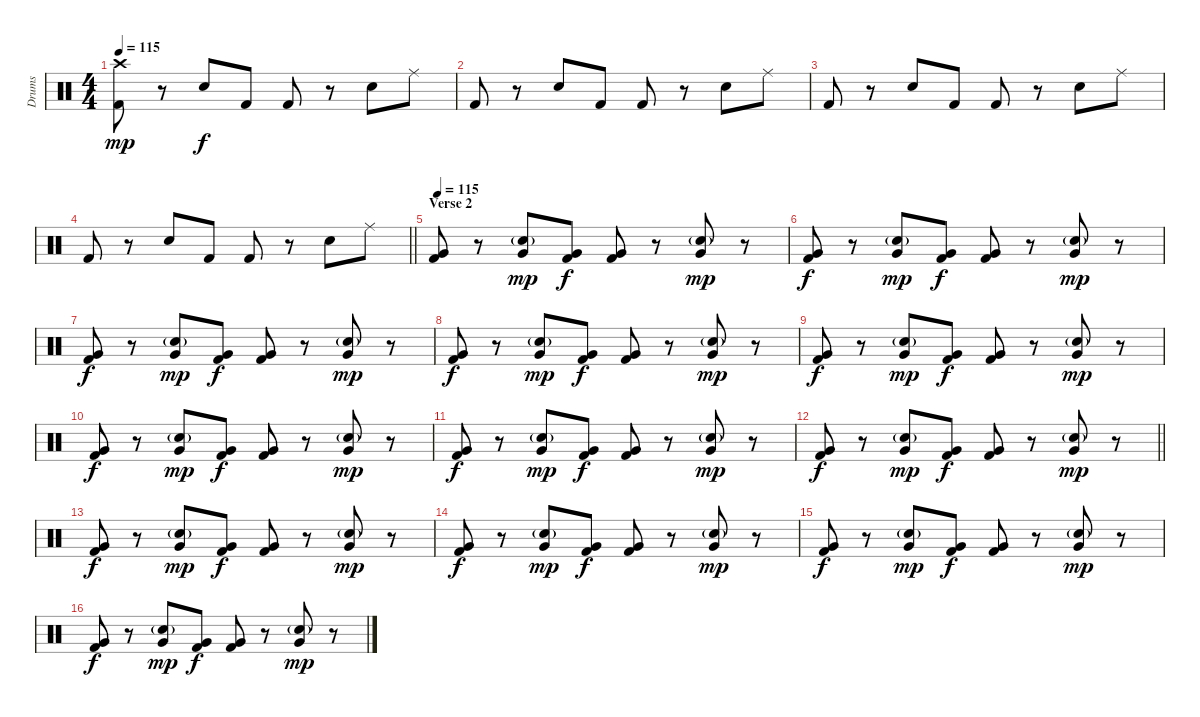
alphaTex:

\track ("Drums" "Drums") {instrument percussion}
\staff {score}
\articulation defaults
\ts (4 4)
\tempo 115
\clef neutral
\ks c
("Crash high (hit)" "Kick (hit) 2").8{dy mp} r.8 "Electric Snare (hit)".8{dy f} "Kick (hit) 2".8 "Kick (hit) 2".8 r.8 "Electric Snare (hit)".8 "Ride (middle)".8 |
"Kick (hit) 2".8 r.8 "Electric Snare (hit)".8 "Kick (hit) 2".8 "Kick (hit) 2".8 r.8 "Electric Snare (hit)".8 "Ride (middle)".8 |
"Kick (hit) 2".8 r.8 "Electric Snare (hit)".8 "Kick (hit) 2".8 "Kick (hit) 2".8 r.8 "Electric Snare (hit)".8 "Ride (middle)".8 |
\barLineRight lightlight "Kick (hit) 2".8
r.8 "Electric Snare (hit)".8 "Kick (hit) 2".8 "Kick (hit) 2".8 r.8 "Electric Snare (hit)".8 "Ride (middle)".8 |
\section ("" "Verse 2")
\tempo 115
("Very Low Tom (hit)" "Kick (hit) 2").8 r.8 ("Snare (hit) 2"{g} "Very Low Tom (hit)").8{dy mp} ("Very Low Tom (hit)" "Kick (hit) 2").8{dy f} ("Very Low Tom (hit)" "Kick (hit) 2").8 r.8 ("Snare (hit) 2"{g} "Very Low Tom (hit)").8{dy mp} r.8 |
("Very Low Tom (hit)" "Kick (hit) 2").8{dy f} r.8 ("Snare (hit) 2"{g} "Very Low Tom (hit)").8{dy mp} ("Very Low Tom (hit)" "Kick (hit) 2").8{dy f} ("Very Low Tom (hit)" "Kick (hit) 2").8 r.8 ("Snare (hit) 2"{g} "Very Low Tom (hit)").8{dy mp} r.8 |
("Very Low Tom (hit)" "Kick (hit) 2").8{dy f} r.8 ("Snare (hit) 2"{g} "Very Low Tom (hit)").8{dy mp} ("Very Low Tom (hit)" "Kick (hit) 2").8{dy f} ("Very Low Tom (hit)" "Kick (hit) 2").8 r.8 ("Snare (hit) 2"{g} "Very Low Tom (hit)").8{dy mp} r.8 |
("Very Low Tom (hit)" "Kick (hit) 2").8{dy f} r.8 ("Snare (hit) 2"{g} "Very Low Tom (hit)").8{dy mp} ("Very Low Tom (hit)" "Kick (hit) 2").8{dy f} ("Very Low Tom (hit)" "Kick (hit) 2").8 r.8 ("Snare (hit) 2"{g} "Very Low Tom (hit)").8{dy mp} r.8 |
("Very Low Tom (hit)" "Kick (hit) 2").8{dy f} r.8 ("Snare (hit) 2"{g} "Very Low Tom (hit)").8{dy mp} ("Very Low Tom (hit)" "Kick (hit) 2").8{dy f} ("Very Low Tom (hit)" "Kick (hit) 2").8 r.8 ("Snare (hit) 2"{g} "Very Low Tom (hit)").8{dy mp} r.8 |
("Very Low Tom (hit)" "Kick (hit) 2").8{dy f} r.8 ("Snare (hit) 2"{g} "Very Low Tom (hit)").8{dy mp} ("Very Low Tom (hit)" "Kick (hit) 2").8{dy f} ("Very Low Tom (hit)" "Kick (hit) 2").8 r.8 ("Snare (hit) 2"{g} "Very Low Tom (hit)").8{dy mp} r.8 |
("Very Low Tom (hit)" "Kick (hit) 2").8{dy f} r.8 ("Snare (hit) 2"{g} "Very Low Tom (hit)").8{dy mp} ("Very Low Tom (hit)" "Kick (hit) 2").8{dy f} ("Very Low Tom (hit)" "Kick (hit) 2").8 r.8 ("Snare (hit) 2"{g} "Very Low Tom (hit)").8{dy mp} r.8 |
\barLineRight lightlight
("Very Low Tom (hit)" "Kick (hit) 2").8{dy f} r.8 ("Snare (hit) 2"{g} "Very Low Tom (hit)").8{dy mp} ("Very Low Tom (hit)" "Kick (hit) 2").8{dy f} ("Very Low Tom (hit)" "Kick (hit) 2").8 r.8 ("Snare (hit) 2"{g} "Very Low Tom (hit)").8{dy mp} r.8 |
("Very Low Tom (hit)" "Kick (hit) 2").8{dy f} r.8 ("Snare (hit) 2"{g} "Very Low Tom (hit)").8{dy mp} ("Very Low Tom (hit)" "Kick (hit) 2").8{dy f} ("Very Low Tom (hit)" "Kick (hit) 2").8 r.8 ("Snare (hit) 2"{g} "Very Low Tom (hit)").8{dy mp} r.8 |
("Very Low Tom (hit)" "Kick (hit) 2").8{dy f} r.8 ("Snare (hit) 2"{g} "Very Low Tom (hit)").8{dy mp} ("Very Low Tom (hit)" "Kick (hit) 2").8{dy f} ("Very Low Tom (hit)" "Kick (hit) 2").8 r.8 ("Snare (hit) 2"{g} "Very Low Tom (hit)").8{dy mp} r.8 |
("Very Low Tom (hit)" "Kick (hit) 2").8{dy f} r.8 ("Snare (hit) 2"{g} "Very Low Tom (hit)").8{dy mp} ("Very Low Tom (hit)" "Kick (hit) 2").8{dy f} ("Very Low Tom (hit)" "Kick (hit) 2").8 r.8 ("Snare (hit) 2"{g} "Very Low Tom (hit)").8{dy mp} r.8 |
("Very Low Tom (hit)" "Kick (hit) 2").8{dy f} r.8 ("Snare (hit) 2"{g} "Very Low Tom (hit)").8{dy mp} ("Very Low Tom (hit)" "Kick (hit) 2").8{dy f} ("Very Low Tom (hit)" "Kick (hit) 2").8 r.8 ("Snare (hit) 2"{g} "Very Low Tom (hit)").8{dy mp} r.8
